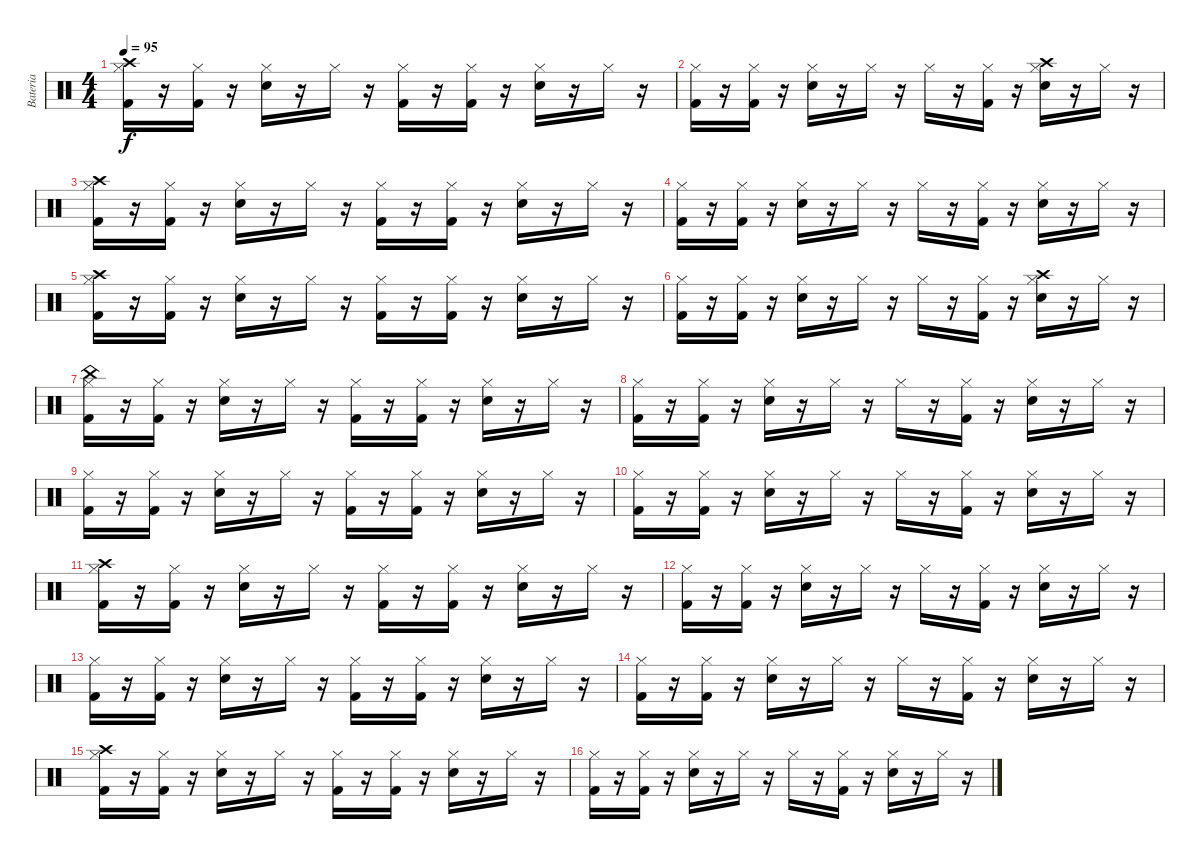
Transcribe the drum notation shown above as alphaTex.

\track ("Bateria" "Bateria") {instrument percussion}
\staff {score}
\articulation defaults
\ts (4 4)
\tempo 95
\clef neutral
\ks c
("Crash high (hit)" "Hi-Hat (closed)" "Kick (hit) 2").16{dy f} r.16 ("Hi-Hat (closed)" "Kick (hit) 2").16 r.16 ("Hi-Hat (closed)" "Snare (hit) 2").16 r.16 "Hi-Hat (closed)".16 r.16 ("Hi-Hat (closed)" "Kick (hit) 2").16 r.16 ("Hi-Hat (closed)" "Kick (hit) 2").16 r.16 ("Hi-Hat (closed)" "Snare (hit) 2").16 r.16 "Hi-Hat (closed)".16 r.16 |
("Hi-Hat (closed)" "Kick (hit) 2").16 r.16 ("Hi-Hat (closed)" "Kick (hit) 2").16 r.16 ("Hi-Hat (closed)" "Snare (hit) 2").16 r.16 "Hi-Hat (closed)".16 r.16 "Hi-Hat (closed)".16 r.16 ("Hi-Hat (closed)" "Kick (hit) 2").16 r.16 ("Crash high (hit)" "Hi-Hat (closed)" "Snare (hit) 2").16 r.16 "Hi-Hat (closed)".16 r.16 |
("Crash high (hit)" "Hi-Hat (closed)" "Kick (hit) 2").16 r.16 ("Hi-Hat (closed)" "Kick (hit) 2").16 r.16 ("Hi-Hat (closed)" "Snare (hit) 2").16 r.16 "Hi-Hat (closed)".16 r.16 ("Hi-Hat (closed)" "Kick (hit) 2").16 r.16 ("Hi-Hat (closed)" "Kick (hit) 2").16 r.16 ("Hi-Hat (closed)" "Snare (hit) 2").16 r.16 "Hi-Hat (closed)".16 r.16 |
("Hi-Hat (closed)" "Kick (hit) 2").16 r.16 ("Hi-Hat (closed)" "Kick (hit) 2").16 r.16 ("Hi-Hat (closed)" "Snare (hit) 2").16 r.16 "Hi-Hat (closed)".16 r.16 "Hi-Hat (closed)".16 r.16 ("Hi-Hat (closed)" "Kick (hit) 2").16 r.16 ("Hi-Hat (closed)" "Snare (hit) 2").16 r.16 "Hi-Hat (closed)".16 r.16 |
("Crash high (hit)" "Hi-Hat (closed)" "Kick (hit) 2").16 r.16 ("Hi-Hat (closed)" "Kick (hit) 2").16 r.16 ("Hi-Hat (closed)" "Snare (hit) 2").16 r.16 "Hi-Hat (closed)".16 r.16 ("Hi-Hat (closed)" "Kick (hit) 2").16 r.16 ("Hi-Hat (closed)" "Kick (hit) 2").16 r.16 ("Hi-Hat (closed)" "Snare (hit) 2").16 r.16 "Hi-Hat (closed)".16 r.16 |
("Hi-Hat (closed)" "Kick (hit) 2").16 r.16 ("Hi-Hat (closed)" "Kick (hit) 2").16 r.16 ("Hi-Hat (closed)" "Snare (hit) 2").16 r.16 "Hi-Hat (closed)".16 r.16 "Hi-Hat (closed)".16 r.16 ("Hi-Hat (closed)" "Kick (hit) 2").16 r.16 ("Crash high (hit)" "Hi-Hat (closed)" "Snare (hit) 2").16 r.16 "Hi-Hat (closed)".16 r.16 |
("China (hit)" "Hi-Hat (closed)" "Kick (hit) 2").16 r.16 ("Hi-Hat (closed)" "Kick (hit) 2").16 r.16 ("Hi-Hat (closed)" "Snare (hit) 2").16 r.16 "Hi-Hat (closed)".16 r.16 ("Hi-Hat (closed)" "Kick (hit) 2").16 r.16 ("Hi-Hat (closed)" "Kick (hit) 2").16 r.16 ("Hi-Hat (closed)" "Snare (hit) 2").16 r.16 "Hi-Hat (closed)".16 r.16 |
("Hi-Hat (closed)" "Kick (hit) 2").16 r.16 ("Hi-Hat (closed)" "Kick (hit) 2").16 r.16 ("Hi-Hat (closed)" "Snare (hit) 2").16 r.16 "Hi-Hat (closed)".16 r.16 "Hi-Hat (closed)".16 r.16 ("Hi-Hat (closed)" "Kick (hit) 2").16 r.16 ("Hi-Hat (closed)" "Snare (hit) 2").16 r.16 "Hi-Hat (closed)".16 r.16 |
("Hi-Hat (closed)" "Kick (hit) 2").16 r.16 ("Hi-Hat (closed)" "Kick (hit) 2").16 r.16 ("Hi-Hat (closed)" "Snare (hit) 2").16 r.16 "Hi-Hat (closed)".16 r.16 ("Hi-Hat (closed)" "Kick (hit) 2").16 r.16 ("Hi-Hat (closed)" "Kick (hit) 2").16 r.16 ("Hi-Hat (closed)" "Snare (hit) 2").16 r.16 "Hi-Hat (closed)".16 r.16 |
("Hi-Hat (closed)" "Kick (hit) 2").16 r.16 ("Hi-Hat (closed)" "Kick (hit) 2").16 r.16 ("Hi-Hat (closed)" "Snare (hit) 2").16 r.16 "Hi-Hat (closed)".16 r.16 "Hi-Hat (closed)".16 r.16 ("Hi-Hat (closed)" "Kick (hit) 2").16 r.16 ("Hi-Hat (closed)" "Snare (hit) 2").16 r.16 "Hi-Hat (closed)".16 r.16 |
("Crash high (hit)" "Hi-Hat (closed)" "Kick (hit) 2").16 r.16 ("Hi-Hat (closed)" "Kick (hit) 2").16 r.16 ("Hi-Hat (closed)" "Snare (hit) 2").16 r.16 "Hi-Hat (closed)".16 r.16 ("Hi-Hat (closed)" "Kick (hit) 2").16 r.16 ("Hi-Hat (closed)" "Kick (hit) 2").16 r.16 ("Hi-Hat (closed)" "Snare (hit) 2").16 r.16 "Hi-Hat (closed)".16 r.16 |
("Hi-Hat (closed)" "Kick (hit) 2").16 r.16 ("Hi-Hat (closed)" "Kick (hit) 2").16 r.16 ("Hi-Hat (closed)" "Snare (hit) 2").16 r.16 "Hi-Hat (closed)".16 r.16 "Hi-Hat (closed)".16 r.16 ("Hi-Hat (closed)" "Kick (hit) 2").16 r.16 ("Hi-Hat (closed)" "Snare (hit) 2").16 r.16 "Hi-Hat (closed)".16 r.16 |
("Hi-Hat (closed)" "Kick (hit) 2").16 r.16 ("Hi-Hat (closed)" "Kick (hit) 2").16 r.16 ("Hi-Hat (closed)" "Snare (hit) 2").16 r.16 "Hi-Hat (closed)".16 r.16 ("Hi-Hat (closed)" "Kick (hit) 2").16 r.16 ("Hi-Hat (closed)" "Kick (hit) 2").16 r.16 ("Hi-Hat (closed)" "Snare (hit) 2").16 r.16 "Hi-Hat (closed)".16 r.16 |
("Hi-Hat (closed)" "Kick (hit) 2").16 r.16 ("Hi-Hat (closed)" "Kick (hit) 2").16 r.16 ("Hi-Hat (closed)" "Snare (hit) 2").16 r.16 "Hi-Hat (closed)".16 r.16 "Hi-Hat (closed)".16 r.16 ("Hi-Hat (closed)" "Kick (hit) 2").16 r.16 ("Hi-Hat (closed)" "Snare (hit) 2").16 r.16 "Hi-Hat (closed)".16 r.16 |
("Crash high (hit)" "Hi-Hat (closed)" "Kick (hit) 2").16 r.16 ("Hi-Hat (closed)" "Kick (hit) 2").16 r.16 ("Hi-Hat (closed)" "Snare (hit) 2").16 r.16 "Hi-Hat (closed)".16 r.16 ("Hi-Hat (closed)" "Kick (hit) 2").16 r.16 ("Hi-Hat (closed)" "Kick (hit) 2").16 r.16 ("Hi-Hat (closed)" "Snare (hit) 2").16 r.16 "Hi-Hat (closed)".16 r.16 |
("Hi-Hat (closed)" "Kick (hit) 2").16 r.16 ("Hi-Hat (closed)" "Kick (hit) 2").16 r.16 ("Hi-Hat (closed)" "Snare (hit) 2").16 r.16 "Hi-Hat (closed)".16 r.16 "Hi-Hat (closed)".16 r.16 ("Hi-Hat (closed)" "Kick (hit) 2").16 r.16 ("Hi-Hat (closed)" "Snare (hit) 2").16 r.16 "Hi-Hat (closed)".16 r.16
